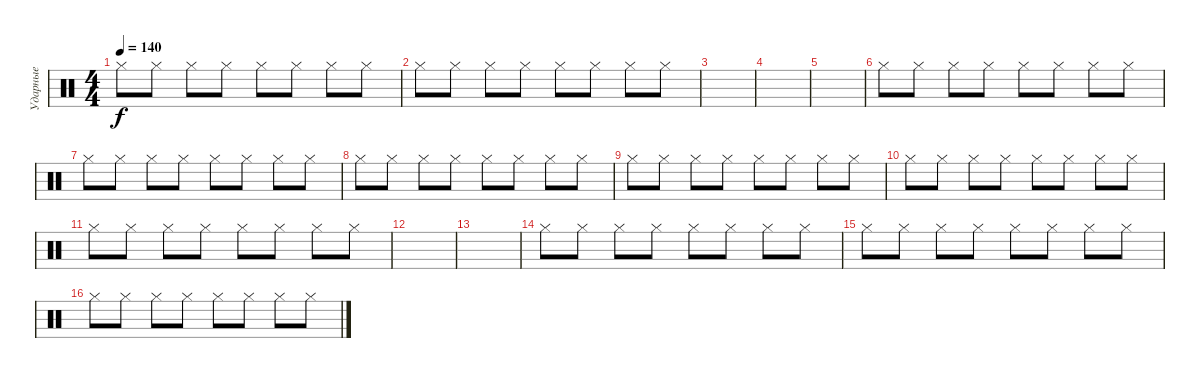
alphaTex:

\track ("Ударные" "Ударные") {instrument percussion}
\staff {score}
\articulation defaults
\ts (4 4)
\tempo 140
\clef neutral
\ks c "Hi-Hat (closed)".8{dy f} "Hi-Hat (closed)".8 "Hi-Hat (closed)".8 "Hi-Hat (closed)".8 "Hi-Hat (closed)".8 "Hi-Hat (closed)".8 "Hi-Hat (closed)".8 "Hi-Hat (closed)".8
|
"Hi-Hat (closed)".8 "Hi-Hat (closed)".8 "Hi-Hat (closed)".8 "Hi-Hat (closed)".8 "Hi-Hat (closed)".8 "Hi-Hat (closed)".8 "Hi-Hat (closed)".8 "Hi-Hat (closed)".8 |
|
|
|
"Hi-Hat (closed)".8 "Hi-Hat (closed)".8 "Hi-Hat (closed)".8 "Hi-Hat (closed)".8 "Hi-Hat (closed)".8 "Hi-Hat (closed)".8 "Hi-Hat (closed)".8 "Hi-Hat (closed)".8 |
"Hi-Hat (closed)".8 "Hi-Hat (closed)".8 "Hi-Hat (closed)".8 "Hi-Hat (closed)".8 "Hi-Hat (closed)".8 "Hi-Hat (closed)".8 "Hi-Hat (closed)".8 "Hi-Hat (closed)".8 |
"Hi-Hat (closed)".8 "Hi-Hat (closed)".8 "Hi-Hat (closed)".8 "Hi-Hat (closed)".8 "Hi-Hat (closed)".8 "Hi-Hat (closed)".8 "Hi-Hat (closed)".8 "Hi-Hat (closed)".8 |
"Hi-Hat (closed)".8 "Hi-Hat (closed)".8 "Hi-Hat (closed)".8 "Hi-Hat (closed)".8 "Hi-Hat (closed)".8 "Hi-Hat (closed)".8 "Hi-Hat (closed)".8 "Hi-Hat (closed)".8 |
"Hi-Hat (closed)".8 "Hi-Hat (closed)".8 "Hi-Hat (closed)".8 "Hi-Hat (closed)".8 "Hi-Hat (closed)".8 "Hi-Hat (closed)".8 "Hi-Hat (closed)".8 "Hi-Hat (closed)".8 |
"Hi-Hat (closed)".8 "Hi-Hat (closed)".8 "Hi-Hat (closed)".8 "Hi-Hat (closed)".8 "Hi-Hat (closed)".8 "Hi-Hat (closed)".8 "Hi-Hat (closed)".8 "Hi-Hat (closed)".8 |
|
|
"Hi-Hat (closed)".8 "Hi-Hat (closed)".8 "Hi-Hat (closed)".8 "Hi-Hat (closed)".8 "Hi-Hat (closed)".8 "Hi-Hat (closed)".8 "Hi-Hat (closed)".8 "Hi-Hat (closed)".8 |
"Hi-Hat (closed)".8 "Hi-Hat (closed)".8 "Hi-Hat (closed)".8 "Hi-Hat (closed)".8 "Hi-Hat (closed)".8 "Hi-Hat (closed)".8 "Hi-Hat (closed)".8 "Hi-Hat (closed)".8 |
"Hi-Hat (closed)".8 "Hi-Hat (closed)".8 "Hi-Hat (closed)".8 "Hi-Hat (closed)".8 "Hi-Hat (closed)".8 "Hi-Hat (closed)".8 "Hi-Hat (closed)".8 "Hi-Hat (closed)".8
